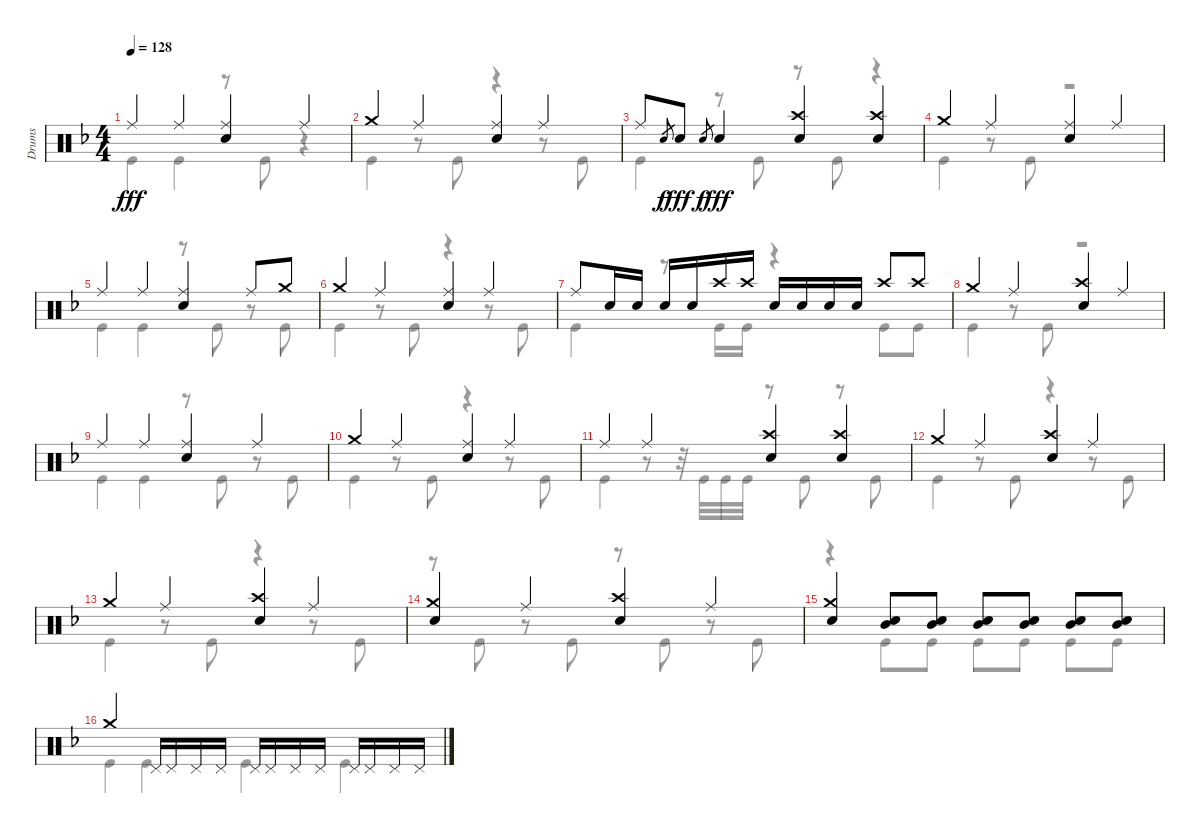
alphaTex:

\track ("Drums" "Drums") {instrument percussion}
\staff {score}
\articulation defaults
\voice
\ts (4 4)
\tempo 128
\clef neutral
\ks dminor "Ride (middle)".4{dy fff} "Ride (middle)".4
("Ride (middle)" "Electric Snare (hit)").4 "Ride (middle)".4 |
"Crash medium (hit)".4 "Ride (middle)".4 ("Ride (middle)" "Electric Snare (hit)").4 "Ride (middle)".4 |
"Ride (middle)".8 "Electric Snare (hit)".8{gr dy f} "Electric Snare (hit)".8{dy fff} "Electric Snare (hit)".8{gr dy f} "Electric Snare (hit)".4{dy fff} ("Crash high (hit)" "Electric Snare (hit)").4 ("Crash high (hit)" "Electric Snare (hit)").4 |
"Crash medium (hit)".4 "Ride (middle)".4 ("Ride (middle)" "Electric Snare (hit)").4 "Ride (middle)".4 |
"Ride (middle)".4 "Ride (middle)".4 ("Ride (middle)" "Electric Snare (hit)").4 "Ride (middle)".8 "Crash medium (hit)".8 |
"Crash medium (hit)".4 "Ride (middle)".4 ("Ride (middle)" "Electric Snare (hit)").4 "Ride (middle)".4 |
"Ride (middle)".8 "Electric Snare (hit)".16 "Electric Snare (hit)".16 "Electric Snare (hit)".16 "Electric Snare (hit)".16 "Crash high (hit)".16 "Crash high (hit)".16 "Electric Snare (hit)".16 "Electric Snare (hit)".16 "Electric Snare (hit)".16 "Electric Snare (hit)".16 "Crash high (hit)".8 "Crash high (hit)".8 |
"Crash medium (hit)".4 "Ride (middle)".4 ("Crash high (hit)" "Electric Snare (hit)").4 "Ride (middle)".4 |
"Ride (middle)".4 "Ride (middle)".4 ("Ride (middle)" "Electric Snare (hit)").4 "Ride (middle)".4 |
"Crash medium (hit)".4 "Ride (middle)".4 ("Ride (middle)" "Electric Snare (hit)").4 "Ride (middle)".4 |
"Ride (middle)".4 "Ride (middle)".4 ("Crash high (hit)" "Electric Snare (hit)").4 ("Crash high (hit)" "Electric Snare (hit)").4 |
"Crash medium (hit)".4 "Ride (middle)".4 ("Crash high (hit)" "Electric Snare (hit)").4 "Ride (middle)".4 |
"Crash medium (hit)".4 "Ride (middle)".4 ("Crash high (hit)" "Electric Snare (hit)").4 "Ride (middle)".4 |
("Crash medium (hit)" "Electric Snare (hit)").4 "Ride (middle)".4 ("Crash high (hit)" "Electric Snare (hit)").4 "Ride (middle)".4 |
("Crash medium (hit)" "Electric Snare (hit)").4 ("Mid Tom (hit)" "Electric Snare (hit)").8 ("Mid Tom (hit)" "Electric Snare (hit)").8 ("Mid Tom (hit)" "Electric Snare (hit)").8 ("Mid Tom (hit)" "Electric Snare (hit)").8 ("Mid Tom (hit)" "Electric Snare (hit)").8 ("Mid Tom (hit)" "Electric Snare (hit)").8 |
"Crash medium (hit)".4 "Pedal Hi-Hat (hit)".16 "Pedal Hi-Hat (hit)".16 "Pedal Hi-Hat (hit)".16 "Pedal Hi-Hat (hit)".16 "Pedal Hi-Hat (hit)".16 "Pedal Hi-Hat (hit)".16 "Pedal Hi-Hat (hit)".16 "Pedal Hi-Hat (hit)".16 "Pedal Hi-Hat (hit)".16 "Pedal Hi-Hat (hit)".16 "Pedal Hi-Hat (hit)".16 "Pedal Hi-Hat (hit)".16
\voice
\clef neutral
\ottava regular
\simile none
\ks dminor "Kick (hit)".4{dy fff} "Kick (hit)".4
r.8 "Kick (hit)".8 r.4 |
"Kick (hit)".4 r.8 "Kick (hit)".8 r.4 r.8 "Kick (hit)".8 |
"Kick (hit)".4 r.8 "Kick (hit)".8 r.8 "Kick (hit)".8 r.4 |
"Kick (hit)".4 r.8 "Kick (hit)".8 r.2 |
"Kick (hit)".4 "Kick (hit)".4 r.8 "Kick (hit)".8 r.8 "Kick (hit)".8 |
"Kick (hit)".4 r.8 "Kick (hit)".8 r.4 r.8 "Kick (hit)".8 |
"Kick (hit)".4 r.8 "Kick (hit)".16 "Kick (hit)".16 r.4 "Kick (hit)".8 "Kick (hit)".8 |
"Kick (hit)".4 r.8 "Kick (hit)".8 r.2 |
"Kick (hit)".4 "Kick (hit)".4 r.8 "Kick (hit)".8 r.8 "Kick (hit)".8 |
"Kick (hit)".4 r.8 "Kick (hit)".8 r.4 r.8 "Kick (hit)".8 |
"Kick (hit)".4 r.8 r.32 "Kick (hit)".32 "Kick (hit)".32 "Kick (hit)".32 r.8 "Kick (hit)".8 r.8 "Kick (hit)".8 |
"Kick (hit)".4 r.8 "Kick (hit)".8 r.4 r.8 "Kick (hit)".8 |
"Kick (hit)".4 r.8 "Kick (hit)".8 r.4 r.8 "Kick (hit)".8 |
r.8 "Kick (hit)".8 r.8 "Kick (hit)".8 r.8 "Kick (hit)".8 r.8 "Kick (hit)".8 |
r.4 "Kick (hit)".8 "Kick (hit)".8 "Kick (hit)".8 "Kick (hit)".8 "Kick (hit)".8 "Kick (hit)".8 |
"Kick (hit)".4 "Kick (hit)".4 "Kick (hit)".4 "Kick (hit)".4
